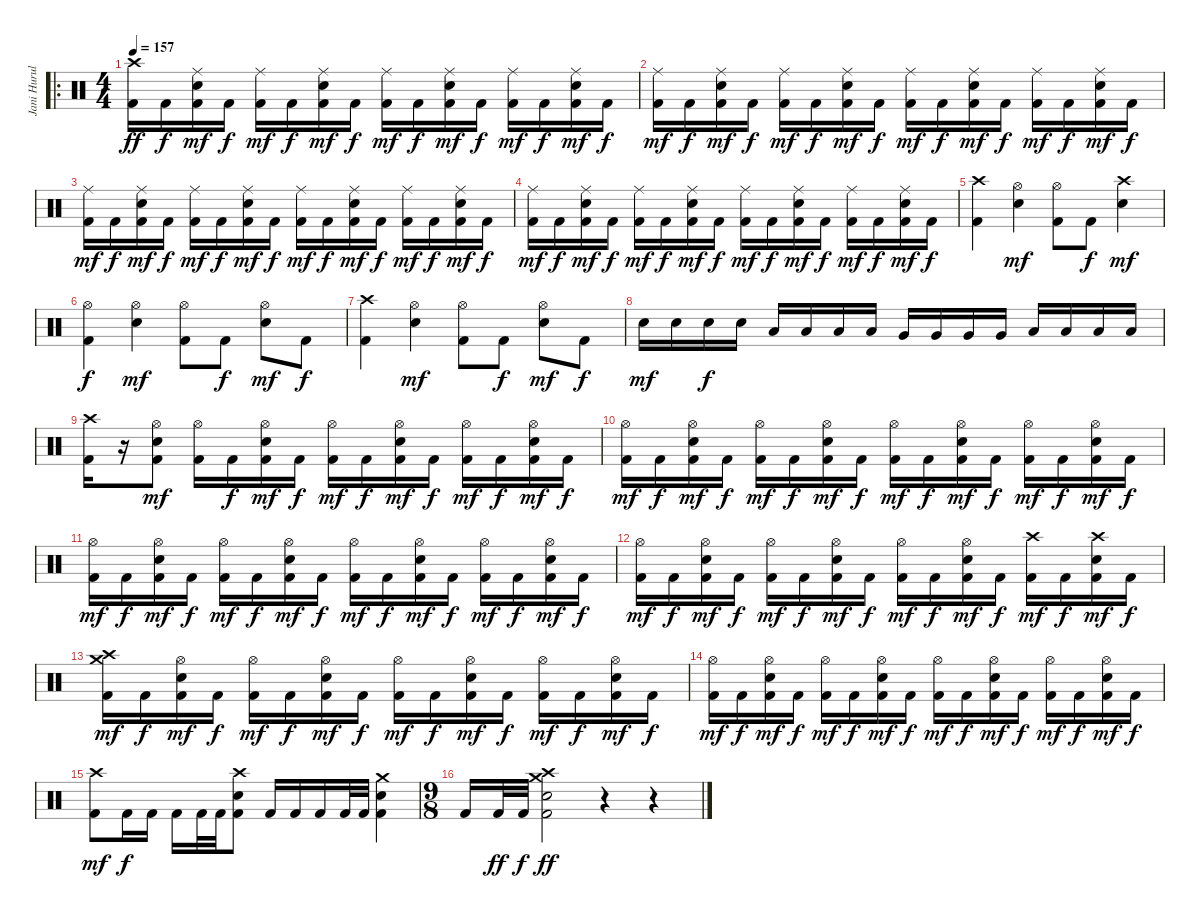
\track ("Jani Hurula" "Jani Hurul") {instrument percussion}
\staff {score}
\articulation defaults
\ro
\ts (4 4)
\tempo 157
\clef neutral
\ks c
("Crash high (hit)" "Kick (hit) 2").16{dy ff} "Kick (hit) 2".16{dy f} ("Ride (middle)" "Snare (hit) 2" "Kick (hit) 2").16{dy mf} "Kick (hit) 2".16{dy f} ("Ride (middle)" "Kick (hit) 2").16{dy mf} "Kick (hit) 2".16{dy f} ("Ride (middle)" "Snare (hit) 2" "Kick (hit) 2").16{dy mf} "Kick (hit) 2".16{dy f} ("Ride (middle)" "Kick (hit) 2").16{dy mf} "Kick (hit) 2".16{dy f} ("Ride (middle)" "Snare (hit) 2" "Kick (hit) 2").16{dy mf} "Kick (hit) 2".16{dy f} ("Ride (middle)" "Kick (hit) 2").16{dy mf} "Kick (hit) 2".16{dy f} ("Ride (middle)" "Snare (hit) 2" "Kick (hit) 2").16{dy mf} "Kick (hit) 2".16{dy f} |
("Ride (middle)" "Kick (hit) 2").16{dy mf} "Kick (hit) 2".16{dy f} ("Ride (middle)" "Snare (hit) 2" "Kick (hit) 2").16{dy mf} "Kick (hit) 2".16{dy f} ("Ride (middle)" "Kick (hit) 2").16{dy mf} "Kick (hit) 2".16{dy f} ("Ride (middle)" "Snare (hit) 2" "Kick (hit) 2").16{dy mf} "Kick (hit) 2".16{dy f} ("Ride (middle)" "Kick (hit) 2").16{dy mf} "Kick (hit) 2".16{dy f} ("Ride (middle)" "Snare (hit) 2" "Kick (hit) 2").16{dy mf} "Kick (hit) 2".16{dy f} ("Ride (middle)" "Kick (hit) 2").16{dy mf} "Kick (hit) 2".16{dy f} ("Ride (middle)" "Snare (hit) 2" "Kick (hit) 2").16{dy mf} "Kick (hit) 2".16{dy f} |
("Ride (middle)" "Kick (hit) 2").16{dy mf} "Kick (hit) 2".16{dy f} ("Ride (middle)" "Snare (hit) 2" "Kick (hit) 2").16{dy mf} "Kick (hit) 2".16{dy f} ("Ride (middle)" "Kick (hit) 2").16{dy mf} "Kick (hit) 2".16{dy f} ("Ride (middle)" "Snare (hit) 2" "Kick (hit) 2").16{dy mf} "Kick (hit) 2".16{dy f} ("Ride (middle)" "Kick (hit) 2").16{dy mf} "Kick (hit) 2".16{dy f} ("Ride (middle)" "Snare (hit) 2" "Kick (hit) 2").16{dy mf} "Kick (hit) 2".16{dy f} ("Ride (middle)" "Kick (hit) 2").16{dy mf} "Kick (hit) 2".16{dy f} ("Ride (middle)" "Snare (hit) 2" "Kick (hit) 2").16{dy mf} "Kick (hit) 2".16{dy f} |
("Ride (middle)" "Kick (hit) 2").16{dy mf} "Kick (hit) 2".16{dy f} ("Ride (middle)" "Snare (hit) 2" "Kick (hit) 2").16{dy mf} "Kick (hit) 2".16{dy f} ("Ride (middle)" "Kick (hit) 2").16{dy mf} "Kick (hit) 2".16{dy f} ("Ride (middle)" "Snare (hit) 2" "Kick (hit) 2").16{dy mf} "Kick (hit) 2".16{dy f} ("Ride (middle)" "Kick (hit) 2").16{dy mf} "Kick (hit) 2".16{dy f} ("Ride (middle)" "Snare (hit) 2" "Kick (hit) 2").16{dy mf} "Kick (hit) 2".16{dy f} ("Ride (middle)" "Kick (hit) 2").16{dy mf} "Kick (hit) 2".16{dy f} ("Ride (middle)" "Snare (hit) 2" "Kick (hit) 2").16{dy mf} "Kick (hit) 2".16{dy f} |
("Crash high (hit)" "Kick (hit) 2").4 ("Hi-Hat (open)" "Snare (hit) 2").4{dy mf} ("Hi-Hat (open)" "Kick (hit) 2").8 "Kick (hit) 2".8{dy f} ("Crash high (hit)" "Snare (hit) 2").4{dy mf} |
("Hi-Hat (open)" "Kick (hit) 2").4{dy f} ("Hi-Hat (open)" "Snare (hit) 2").4{dy mf} ("Hi-Hat (open)" "Kick (hit) 2").8 "Kick (hit) 2".8{dy f} ("Hi-Hat (open)" "Snare (hit) 2").8{dy mf} "Kick (hit) 2".8{dy f} |
("Crash high (hit)" "Kick (hit) 2").4 ("Hi-Hat (open)" "Snare (hit) 2").4{dy mf} ("Hi-Hat (open)" "Kick (hit) 2").8 "Kick (hit) 2".8{dy f} ("Hi-Hat (open)" "Snare (hit) 2").8{dy mf} "Kick (hit) 2".8{dy f} |
"Snare (hit) 2".16{dy mf} "Snare (hit) 2".16 "Snare (hit) 2".16{dy f} "Snare (hit) 2".16 "Low Tom (hit)".16 "Low Tom (hit)".16 "Low Tom (hit)".16 "Low Tom (hit)".16 "Very Low Tom (hit)".16 "Very Low Tom (hit)".16 "Very Low Tom (hit)".16 "Very Low Tom (hit)".16 "Low Floor Tom (hit)".16 "Low Floor Tom (hit)".16 "Low Floor Tom (hit)".16 "Low Floor Tom (hit)".16 |
("Crash high (hit)" "Kick (hit) 2").16 r.16 ("Hi-Hat (open)" "Snare (hit) 2" "Kick (hit) 2").8{dy mf} ("Hi-Hat (open)" "Kick (hit) 2").16 "Kick (hit) 2".16{dy f} ("Hi-Hat (open)" "Snare (hit) 2" "Kick (hit) 2").16{dy mf} "Kick (hit) 2".16{dy f} ("Hi-Hat (open)" "Kick (hit) 2").16{dy mf} "Kick (hit) 2".16{dy f} ("Hi-Hat (open)" "Snare (hit) 2" "Kick (hit) 2").16{dy mf} "Kick (hit) 2".16{dy f} ("Hi-Hat (open)" "Kick (hit) 2").16{dy mf} "Kick (hit) 2".16{dy f} ("Hi-Hat (open)" "Snare (hit) 2" "Kick (hit) 2").16{dy mf} "Kick (hit) 2".16{dy f} |
("Hi-Hat (open)" "Kick (hit) 2").16{dy mf} "Kick (hit) 2".16{dy f} ("Hi-Hat (open)" "Snare (hit) 2" "Kick (hit) 2").16{dy mf} "Kick (hit) 2".16{dy f} ("Hi-Hat (open)" "Kick (hit) 2").16{dy mf} "Kick (hit) 2".16{dy f} ("Hi-Hat (open)" "Snare (hit) 2" "Kick (hit) 2").16{dy mf} "Kick (hit) 2".16{dy f} ("Hi-Hat (open)" "Kick (hit) 2").16{dy mf} "Kick (hit) 2".16{dy f} ("Hi-Hat (open)" "Snare (hit) 2" "Kick (hit) 2").16{dy mf} "Kick (hit) 2".16{dy f} ("Hi-Hat (open)" "Kick (hit) 2").16{dy mf} "Kick (hit) 2".16{dy f} ("Hi-Hat (open)" "Snare (hit) 2" "Kick (hit) 2").16{dy mf} "Kick (hit) 2".16{dy f} |
("Hi-Hat (open)" "Kick (hit) 2").16{dy mf} "Kick (hit) 2".16{dy f} ("Hi-Hat (open)" "Snare (hit) 2" "Kick (hit) 2").16{dy mf} "Kick (hit) 2".16{dy f} ("Hi-Hat (open)" "Kick (hit) 2").16{dy mf} "Kick (hit) 2".16{dy f} ("Hi-Hat (open)" "Snare (hit) 2" "Kick (hit) 2").16{dy mf} "Kick (hit) 2".16{dy f} ("Hi-Hat (open)" "Kick (hit) 2").16{dy mf} "Kick (hit) 2".16{dy f} ("Hi-Hat (open)" "Snare (hit) 2" "Kick (hit) 2").16{dy mf} "Kick (hit) 2".16{dy f} ("Hi-Hat (open)" "Kick (hit) 2").16{dy mf} "Kick (hit) 2".16{dy f} ("Hi-Hat (open)" "Snare (hit) 2" "Kick (hit) 2").16{dy mf} "Kick (hit) 2".16{dy f} |
("Hi-Hat (open)" "Kick (hit) 2").16{dy mf} "Kick (hit) 2".16{dy f} ("Hi-Hat (open)" "Snare (hit) 2" "Kick (hit) 2").16{dy mf} "Kick (hit) 2".16{dy f} ("Hi-Hat (open)" "Kick (hit) 2").16{dy mf} "Kick (hit) 2".16{dy f} ("Hi-Hat (open)" "Snare (hit) 2" "Kick (hit) 2").16{dy mf} "Kick (hit) 2".16{dy f} ("Hi-Hat (open)" "Kick (hit) 2").16{dy mf} "Kick (hit) 2".16{dy f} ("Hi-Hat (open)" "Snare (hit) 2" "Kick (hit) 2").16{dy mf} "Kick (hit) 2".16{dy f} ("Crash high (hit)" "Kick (hit) 2").16{dy mf} "Kick (hit) 2".16{dy f} ("Crash high (hit)" "Snare (hit) 2" "Kick (hit) 2").16{dy mf} "Kick (hit) 2".16{dy f} |
("Crash high (hit)" "Crash medium (hit)" "Kick (hit) 2").16{dy mf} "Kick (hit) 2".16{dy f} ("Hi-Hat (open)" "Snare (hit) 2" "Kick (hit) 2").16{dy mf} "Kick (hit) 2".16{dy f} ("Hi-Hat (open)" "Kick (hit) 2").16{dy mf} "Kick (hit) 2".16{dy f} ("Hi-Hat (open)" "Snare (hit) 2" "Kick (hit) 2").16{dy mf} "Kick (hit) 2".16{dy f} ("Hi-Hat (open)" "Kick (hit) 2").16{dy mf} "Kick (hit) 2".16{dy f} ("Hi-Hat (open)" "Snare (hit) 2" "Kick (hit) 2").16{dy mf} "Kick (hit) 2".16{dy f} ("Hi-Hat (open)" "Kick (hit) 2").16{dy mf} "Kick (hit) 2".16{dy f} ("Hi-Hat (open)" "Snare (hit) 2" "Kick (hit) 2").16{dy mf} "Kick (hit) 2".16{dy f} |
("Hi-Hat (open)" "Kick (hit) 2").16{dy mf} "Kick (hit) 2".16{dy f} ("Hi-Hat (open)" "Snare (hit) 2" "Kick (hit) 2").16{dy mf} "Kick (hit) 2".16{dy f} ("Hi-Hat (open)" "Kick (hit) 2").16{dy mf} "Kick (hit) 2".16{dy f} ("Hi-Hat (open)" "Snare (hit) 2" "Kick (hit) 2").16{dy mf} "Kick (hit) 2".16{dy f} ("Hi-Hat (open)" "Kick (hit) 2").16{dy mf} "Kick (hit) 2".16{dy f} ("Hi-Hat (open)" "Snare (hit) 2" "Kick (hit) 2").16{dy mf} "Kick (hit) 2".16{dy f} ("Hi-Hat (open)" "Kick (hit) 2").16{dy mf} "Kick (hit) 2".16{dy f} ("Hi-Hat (open)" "Snare (hit) 2" "Kick (hit) 2").16{dy mf} "Kick (hit) 2".16{dy f} |
("Crash high (hit)" "Kick (hit) 2").8{dy mf} "Kick (hit) 2".16{dy f} "Kick (hit) 2".16 "Kick (hit) 2".16 "Kick (hit) 2".32 "Kick (hit) 2".32 ("Crash high (hit)" "Snare (hit) 2" "Kick (hit) 2").8 "Kick (hit) 2".16 "Kick (hit) 2".16 "Kick (hit) 2".16 "Kick (hit) 2".32 "Kick (hit) 2".32 ("Crash medium (hit)" "Snare (hit) 2" "Kick (hit) 2").4 |
\ts (9 8)
"Kick (hit) 2".16 "Kick (hit) 2".32{dy ff} "Kick (hit) 2".32{dy f} ("Crash medium (hit)" "Crash high (hit)" "Snare (hit) 2" "Kick (hit) 2").2{dy ff} r.4 r.4
